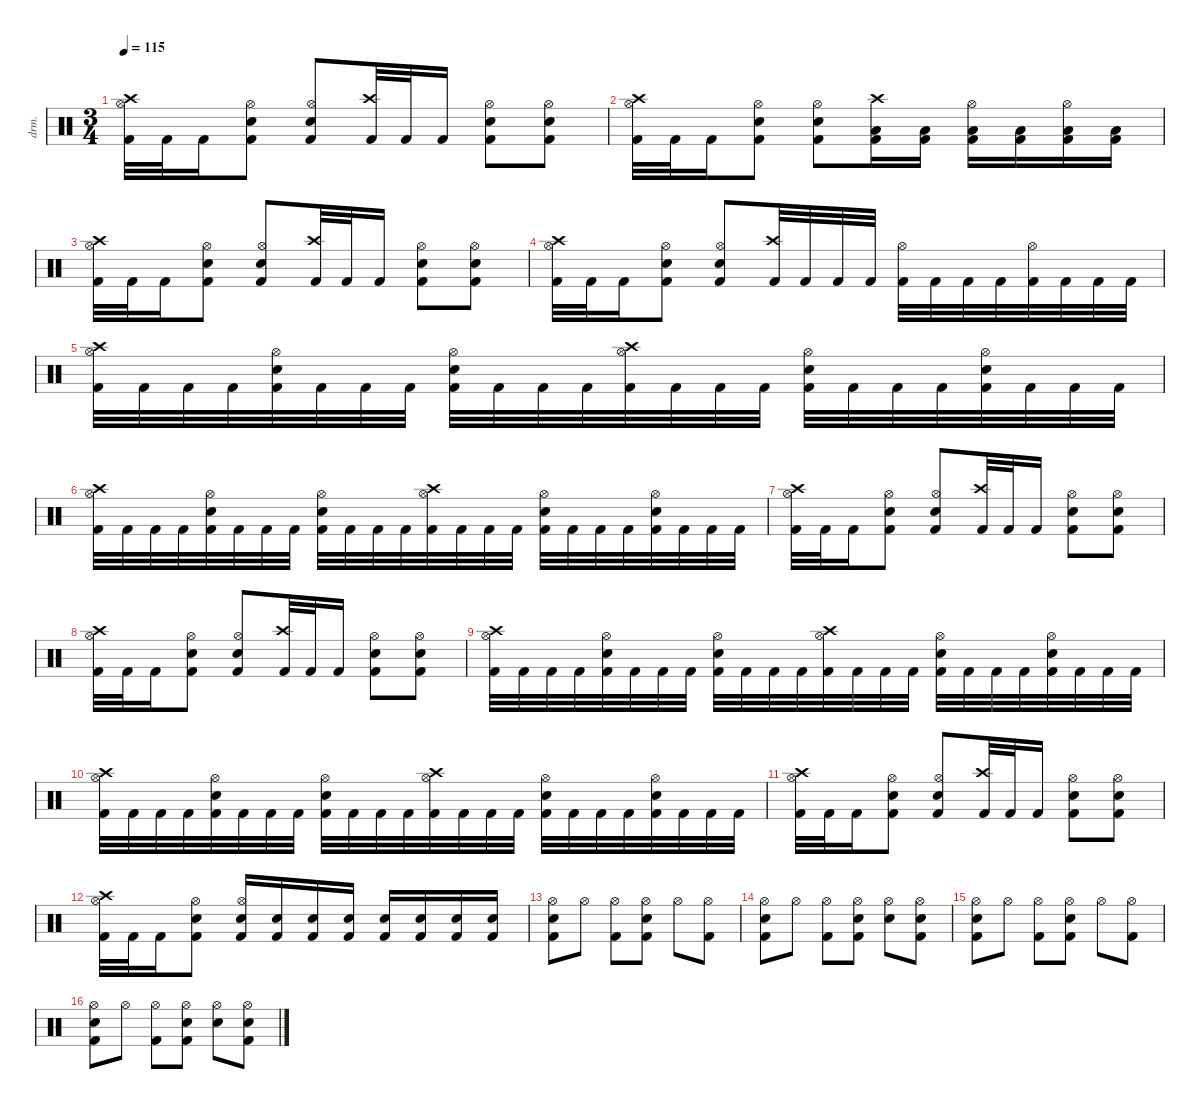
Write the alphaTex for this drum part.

\defaultSystemsLayout 4
\hideDynamics
\bracketExtendMode nobrackets
\otherSystemsTrackNameOrientation horizontal
\track ("Gene Hogland" "drm.") {instrument percussion}
\staff {score}
\articulation defaults
\ts (3 4)
\tempo 115
\clef neutral
\ks c
("Hi-Hat (open)" "Crash high (hit)" "Kick (hit) 2").32{dy f beam Down} "Kick (hit) 2".32{beam Down} "Kick (hit) 2".16{beam Down} ("Hi-Hat (open)" "Snare (hit) 2" "Kick (hit) 2").8{beam Down} ("Hi-Hat (open)" "Snare (hit) 2" "Kick (hit) 2").8{beam Up} ("Crash high (hit)" "Kick (hit) 2").32{beam Up} "Kick (hit) 2".32{beam Up} "Kick (hit) 2".16{beam Up} ("Hi-Hat (open)" "Snare (hit) 2" "Kick (hit) 2").8{beam Down} ("Hi-Hat (open)" "Snare (hit) 2" "Kick (hit) 2").8{beam Down} |
("Hi-Hat (open)" "Crash high (hit)" "Kick (hit) 2").32{beam Down} "Kick (hit) 2".32{beam Down} "Kick (hit) 2".16{beam Down} ("Hi-Hat (open)" "Snare (hit) 2" "Kick (hit) 2").8{beam Down} ("Hi-Hat (open)" "Snare (hit) 2" "Kick (hit) 2").8{beam Down} ("Crash high (hit)" "Low Tom (hit)" "Kick (hit) 2").16{beam Down} ("Low Tom (hit)" "Kick (hit) 2").16{beam Down} ("Hi-Hat (open)" "Low Tom (hit)" "Kick (hit) 2").16{beam Down} ("Low Tom (hit)" "Kick (hit) 2").16{beam Down} ("Hi-Hat (open)" "Low Tom (hit)" "Kick (hit) 2").16{beam Down} ("Low Tom (hit)" "Kick (hit) 2").16{beam Down} |
("Hi-Hat (open)" "Crash high (hit)" "Kick (hit) 2").32{beam Down} "Kick (hit) 2".32{beam Down} "Kick (hit) 2".16{beam Down} ("Hi-Hat (open)" "Snare (hit) 2" "Kick (hit) 2").8{beam Down} ("Hi-Hat (open)" "Snare (hit) 2" "Kick (hit) 2").8{beam Up} ("Crash high (hit)" "Kick (hit) 2").32{beam Up} "Kick (hit) 2".32{beam Up} "Kick (hit) 2".16{beam Up} ("Hi-Hat (open)" "Snare (hit) 2" "Kick (hit) 2").8{beam Down} ("Hi-Hat (open)" "Snare (hit) 2" "Kick (hit) 2").8{beam Down} |
("Hi-Hat (open)" "Crash high (hit)" "Kick (hit) 2").32{beam Down} "Kick (hit) 2".32{beam Down} "Kick (hit) 2".16{beam Down} ("Hi-Hat (open)" "Snare (hit) 2" "Kick (hit) 2").8{beam Down} ("Hi-Hat (open)" "Snare (hit) 2" "Kick (hit) 2").8{beam Up} ("Crash high (hit)" "Kick (hit) 2").32{beam Up} "Kick (hit) 2".32{beam Up} "Kick (hit) 2".32{beam Up} "Kick (hit) 2".32{beam Up} ("Hi-Hat (open)" "Kick (hit) 2").32{beam Down} "Kick (hit) 2".32{beam Down} "Kick (hit) 2".32{beam Down} "Kick (hit) 2".32{beam Down} ("Hi-Hat (open)" "Kick (hit) 2").32{beam Down} "Kick (hit) 2".32{beam Down} "Kick (hit) 2".32{beam Down} "Kick (hit) 2".32{beam Down} |
("Hi-Hat (open)" "Crash high (hit)" "Kick (hit) 2").32{beam Down} "Kick (hit) 2".32{beam Down} "Kick (hit) 2".32{beam Down} "Kick (hit) 2".32{beam Down} ("Hi-Hat (open)" "Snare (hit) 2" "Kick (hit) 2").32{beam Down} "Kick (hit) 2".32{beam Down} "Kick (hit) 2".32{beam Down} "Kick (hit) 2".32{beam Down} ("Hi-Hat (open)" "Snare (hit) 2" "Kick (hit) 2").32{beam Down} "Kick (hit) 2".32{beam Down} "Kick (hit) 2".32{beam Down} "Kick (hit) 2".32{beam Down} ("Hi-Hat (open)" "Crash high (hit)" "Kick (hit) 2").32{beam Down} "Kick (hit) 2".32{beam Down} "Kick (hit) 2".32{beam Down} "Kick (hit) 2".32{beam Down} ("Hi-Hat (open)" "Snare (hit) 2" "Kick (hit) 2").32{beam Down} "Kick (hit) 2".32{beam Down} "Kick (hit) 2".32{beam Down} "Kick (hit) 2".32{beam Down} ("Hi-Hat (open)" "Snare (hit) 2" "Kick (hit) 2").32{beam Down} "Kick (hit) 2".32{beam Down} "Kick (hit) 2".32{beam Down} "Kick (hit) 2".32{beam Down} |
("Hi-Hat (open)" "Crash high (hit)" "Kick (hit) 2").32{beam Down} "Kick (hit) 2".32{beam Down} "Kick (hit) 2".32{beam Down} "Kick (hit) 2".32{beam Down} ("Hi-Hat (open)" "Snare (hit) 2" "Kick (hit) 2").32{beam Down} "Kick (hit) 2".32{beam Down} "Kick (hit) 2".32{beam Down} "Kick (hit) 2".32{beam Down} ("Hi-Hat (open)" "Snare (hit) 2" "Kick (hit) 2").32{beam Down} "Kick (hit) 2".32{beam Down} "Kick (hit) 2".32{beam Down} "Kick (hit) 2".32{beam Down} ("Hi-Hat (open)" "Crash high (hit)" "Kick (hit) 2").32{beam Down} "Kick (hit) 2".32{beam Down} "Kick (hit) 2".32{beam Down} "Kick (hit) 2".32{beam Down} ("Hi-Hat (open)" "Snare (hit) 2" "Kick (hit) 2").32{beam Down} "Kick (hit) 2".32{beam Down} "Kick (hit) 2".32{beam Down} "Kick (hit) 2".32{beam Down} ("Hi-Hat (open)" "Snare (hit) 2" "Kick (hit) 2").32{beam Down} "Kick (hit) 2".32{beam Down} "Kick (hit) 2".32{beam Down} "Kick (hit) 2".32{beam Down} |
("Hi-Hat (open)" "Crash high (hit)" "Kick (hit) 2").32{beam Down} "Kick (hit) 2".32{beam Down} "Kick (hit) 2".16{beam Down} ("Hi-Hat (open)" "Snare (hit) 2" "Kick (hit) 2").8{beam Down} ("Hi-Hat (open)" "Snare (hit) 2" "Kick (hit) 2").8{beam Up} ("Crash high (hit)" "Kick (hit) 2").32{beam Up} "Kick (hit) 2".32{beam Up} "Kick (hit) 2".16{beam Up} ("Hi-Hat (open)" "Snare (hit) 2" "Kick (hit) 2").8{beam Down} ("Hi-Hat (open)" "Snare (hit) 2" "Kick (hit) 2").8{beam Down} |
("Hi-Hat (open)" "Crash high (hit)" "Kick (hit) 2").32{beam Down} "Kick (hit) 2".32{beam Down} "Kick (hit) 2".16{beam Down} ("Hi-Hat (open)" "Snare (hit) 2" "Kick (hit) 2").8{beam Down} ("Hi-Hat (open)" "Snare (hit) 2" "Kick (hit) 2").8{beam Up} ("Crash high (hit)" "Kick (hit) 2").32{beam Up} "Kick (hit) 2".32{beam Up} "Kick (hit) 2".16{beam Up} ("Hi-Hat (open)" "Snare (hit) 2" "Kick (hit) 2").8{beam Down} ("Hi-Hat (open)" "Snare (hit) 2" "Kick (hit) 2").8{beam Down} |
("Hi-Hat (open)" "Crash high (hit)" "Kick (hit) 2").32{beam Down} "Kick (hit) 2".32{beam Down} "Kick (hit) 2".32{beam Down} "Kick (hit) 2".32{beam Down} ("Hi-Hat (open)" "Snare (hit) 2" "Kick (hit) 2").32{beam Down} "Kick (hit) 2".32{beam Down} "Kick (hit) 2".32{beam Down} "Kick (hit) 2".32{beam Down} ("Hi-Hat (open)" "Snare (hit) 2" "Kick (hit) 2").32{beam Down} "Kick (hit) 2".32{beam Down} "Kick (hit) 2".32{beam Down} "Kick (hit) 2".32{beam Down} ("Hi-Hat (open)" "Crash high (hit)" "Kick (hit) 2").32{beam Down} "Kick (hit) 2".32{beam Down} "Kick (hit) 2".32{beam Down} "Kick (hit) 2".32{beam Down} ("Hi-Hat (open)" "Snare (hit) 2" "Kick (hit) 2").32{beam Down} "Kick (hit) 2".32{beam Down} "Kick (hit) 2".32{beam Down} "Kick (hit) 2".32{beam Down} ("Hi-Hat (open)" "Snare (hit) 2" "Kick (hit) 2").32{beam Down} "Kick (hit) 2".32{beam Down} "Kick (hit) 2".32{beam Down} "Kick (hit) 2".32{beam Down} |
("Hi-Hat (open)" "Crash high (hit)" "Kick (hit) 2").32{beam Down} "Kick (hit) 2".32{beam Down} "Kick (hit) 2".32{beam Down} "Kick (hit) 2".32{beam Down} ("Hi-Hat (open)" "Snare (hit) 2" "Kick (hit) 2").32{beam Down} "Kick (hit) 2".32{beam Down} "Kick (hit) 2".32{beam Down} "Kick (hit) 2".32{beam Down} ("Hi-Hat (open)" "Snare (hit) 2" "Kick (hit) 2").32{beam Down} "Kick (hit) 2".32{beam Down} "Kick (hit) 2".32{beam Down} "Kick (hit) 2".32{beam Down} ("Hi-Hat (open)" "Crash high (hit)" "Kick (hit) 2").32{beam Down} "Kick (hit) 2".32{beam Down} "Kick (hit) 2".32{beam Down} "Kick (hit) 2".32{beam Down} ("Hi-Hat (open)" "Snare (hit) 2" "Kick (hit) 2").32{beam Down} "Kick (hit) 2".32{beam Down} "Kick (hit) 2".32{beam Down} "Kick (hit) 2".32{beam Down} ("Hi-Hat (open)" "Snare (hit) 2" "Kick (hit) 2").32{beam Down} "Kick (hit) 2".32{beam Down} "Kick (hit) 2".32{beam Down} "Kick (hit) 2".32{beam Down} |
("Hi-Hat (open)" "Crash high (hit)" "Kick (hit) 2").32{beam Down} "Kick (hit) 2".32{beam Down} "Kick (hit) 2".16{beam Down} ("Hi-Hat (open)" "Snare (hit) 2" "Kick (hit) 2").8{beam Down} ("Hi-Hat (open)" "Snare (hit) 2" "Kick (hit) 2").8{beam Up} ("Crash high (hit)" "Kick (hit) 2").32{beam Up} "Kick (hit) 2".32{beam Up} "Kick (hit) 2".16{beam Up} ("Hi-Hat (open)" "Snare (hit) 2" "Kick (hit) 2").8{beam Down} ("Hi-Hat (open)" "Snare (hit) 2" "Kick (hit) 2").8{beam Down} |
("Hi-Hat (open)" "Crash high (hit)" "Kick (hit) 2").32{beam Down} "Kick (hit) 2".32{beam Down} "Kick (hit) 2".16{beam Down} ("Hi-Hat (open)" "Snare (hit) 2" "Kick (hit) 2").8{beam Down} ("Hi-Hat (open)" "Snare (hit) 2" "Kick (hit) 2").16{beam Up} ("Snare (hit) 2" "Kick (hit) 2").16{beam Up} ("Snare (hit) 2" "Kick (hit) 2").16{beam Up} ("Snare (hit) 2" "Kick (hit) 2").16{beam Up} ("Snare (hit) 2" "Kick (hit) 2").16{beam Up} ("Snare (hit) 2" "Kick (hit) 2").16{beam Up} ("Snare (hit) 2" "Kick (hit) 2").16{beam Up} ("Snare (hit) 2" "Kick (hit) 2").16{beam Up} |
("Hi-Hat (open)" "Snare (hit) 2" "Kick (hit) 2").8{beam Down} "Hi-Hat (open)".8{beam Down} ("Hi-Hat (open)" "Kick (hit) 2").8{beam Down} ("Hi-Hat (open)" "Snare (hit) 2" "Kick (hit) 2").8{beam Down} "Hi-Hat (open)".8{beam Down} ("Hi-Hat (open)" "Kick (hit) 2").8{beam Down} |
("Hi-Hat (open)" "Snare (hit) 2" "Kick (hit) 2").8{beam Down} "Hi-Hat (open)".8{beam Down} ("Hi-Hat (open)" "Kick (hit) 2").8{beam Down} ("Hi-Hat (open)" "Snare (hit) 2" "Kick (hit) 2").8{beam Down} ("Hi-Hat (open)" "Snare (hit) 2").8{beam Down} ("Hi-Hat (open)" "Snare (hit) 2" "Kick (hit) 2").8{beam Down} |
("Hi-Hat (open)" "Snare (hit) 2" "Kick (hit) 2").8{beam Down} "Hi-Hat (open)".8{beam Down} ("Hi-Hat (open)" "Kick (hit) 2").8{beam Down} ("Hi-Hat (open)" "Snare (hit) 2" "Kick (hit) 2").8{beam Down} "Hi-Hat (open)".8{beam Down} ("Hi-Hat (open)" "Kick (hit) 2").8{beam Down} |
("Hi-Hat (open)" "Snare (hit) 2" "Kick (hit) 2").8{beam Down} "Hi-Hat (open)".8{beam Down} ("Hi-Hat (open)" "Kick (hit) 2").8{beam Down} ("Hi-Hat (open)" "Snare (hit) 2" "Kick (hit) 2").8{beam Down} ("Hi-Hat (open)" "Snare (hit) 2").8{beam Down} ("Hi-Hat (open)" "Snare (hit) 2" "Kick (hit) 2").8{beam Down}
